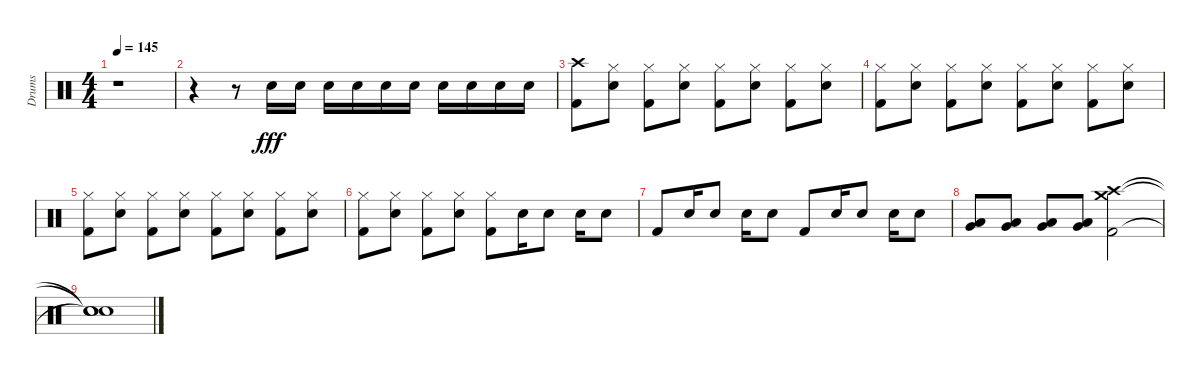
\track ("Drums" "Drums") {instrument percussion}
\staff {score}
\articulation defaults
\ts (4 4)
\tempo 145
\clef neutral
\ks c
r.1{dy fff} |
r.4 r.8 "Electric Snare (hit)".16 "Electric Snare (hit)".16 "Electric Snare (hit)".16 "Electric Snare (hit)".16 "Electric Snare (hit)".16 "Electric Snare (hit)".16 "Electric Snare (hit)".16 "Electric Snare (hit)".16 "Electric Snare (hit)".16 "Electric Snare (hit)".16 |
("Crash high (hit)" "Kick (hit) 2").8 ("Hi-Hat (closed)" "Electric Snare (hit)").8 ("Hi-Hat (closed)" "Kick (hit) 2").8 ("Hi-Hat (closed)" "Electric Snare (hit)").8 ("Hi-Hat (closed)" "Kick (hit) 2").8 ("Hi-Hat (closed)" "Electric Snare (hit)").8 ("Hi-Hat (closed)" "Kick (hit) 2").8 ("Hi-Hat (closed)" "Electric Snare (hit)").8 |
("Hi-Hat (closed)" "Kick (hit) 2").8 ("Hi-Hat (closed)" "Electric Snare (hit)").8 ("Hi-Hat (closed)" "Kick (hit) 2").8 ("Hi-Hat (closed)" "Electric Snare (hit)").8 ("Hi-Hat (closed)" "Kick (hit) 2").8 ("Hi-Hat (closed)" "Electric Snare (hit)").8 ("Hi-Hat (closed)" "Kick (hit) 2").8 ("Hi-Hat (closed)" "Electric Snare (hit)").8 |
("Hi-Hat (closed)" "Kick (hit) 2").8 ("Hi-Hat (closed)" "Electric Snare (hit)").8 ("Hi-Hat (closed)" "Kick (hit) 2").8 ("Hi-Hat (closed)" "Electric Snare (hit)").8 ("Hi-Hat (closed)" "Kick (hit) 2").8 ("Hi-Hat (closed)" "Electric Snare (hit)").8 ("Hi-Hat (closed)" "Kick (hit) 2").8 ("Hi-Hat (closed)" "Electric Snare (hit)").8 |
("Hi-Hat (closed)" "Kick (hit) 2").8 ("Hi-Hat (closed)" "Electric Snare (hit)").8 ("Hi-Hat (closed)" "Kick (hit) 2").8 ("Hi-Hat (closed)" "Electric Snare (hit)").8 ("Hi-Hat (closed)" "Kick (hit) 2").8 "Electric Snare (hit)".16 "Electric Snare (hit)".8 "Electric Snare (hit)".16 "Electric Snare (hit)".8 |
"Kick (hit) 2".8 "Electric Snare (hit)".16 "Electric Snare (hit)".8 "Electric Snare (hit)".16 "Electric Snare (hit)".8 "Kick (hit) 2".8 "Electric Snare (hit)".16 "Electric Snare (hit)".8 "Electric Snare (hit)".16 "Electric Snare (hit)".8 |
("Low Tom (hit)" "Very Low Tom (hit)").8 ("Low Tom (hit)" "Very Low Tom (hit)").8 ("Low Tom (hit)" "Very Low Tom (hit)").8 ("Low Tom (hit)" "Very Low Tom (hit)").8 ("Crash high (hit)" "Crash medium (hit)" "Kick (hit) 2").2 |
("Snare (hit)"{t} "Snare (hit)"{t} "Snare (hit)"{t}).1
